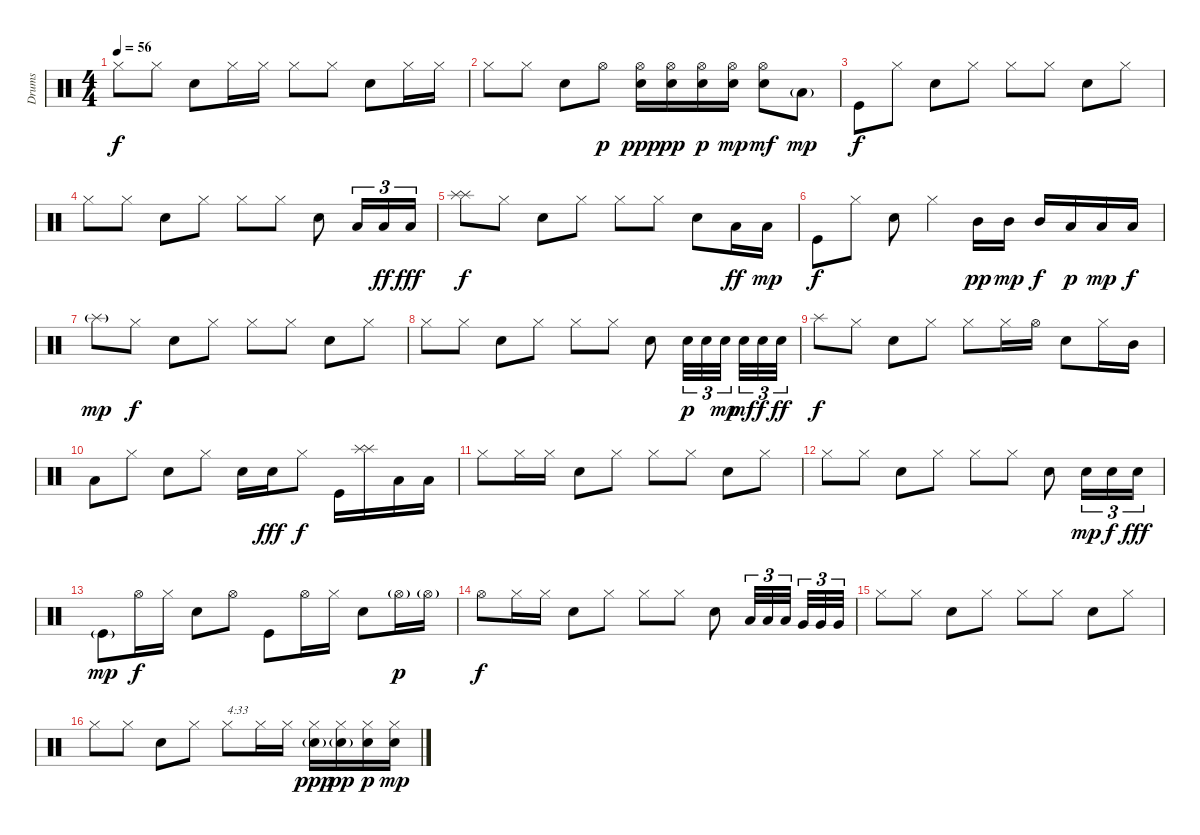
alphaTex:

\track ("Drums" "Drums") {instrument percussion}
\staff {score}
\articulation defaults
\ts (4 4)
\tempo 56
\clef neutral
\ks c "Hi-Hat (closed)".8{dy f} "Hi-Hat (closed)".8 "Electric Snare (hit)".8 "Hi-Hat (closed)".16 "Hi-Hat (closed)".16 "Hi-Hat (closed)".8 "Hi-Hat (closed)".8 "Electric Snare (hit)".8 "Hi-Hat (closed)".16 "Hi-Hat (closed)".16
|
"Hi-Hat (closed)".8 "Hi-Hat (closed)".8 "Electric Snare (hit)".8 "Hi-Hat (open)".8{dy p} ("Hi-Hat (open)" "Electric Snare (hit)").16{dy ppp} ("Hi-Hat (open)" "Electric Snare (hit)").16{dy pp} ("Hi-Hat (open)" "Electric Snare (hit)").16{dy p} ("Hi-Hat (open)" "Electric Snare (hit)").16{dy mp} ("Hi-Hat (open)" "Electric Snare (hit)").8{dy mf} "Low Tom (hit)"{g}.8{dy mp} |
"Kick (hit)".8{dy f} "Hi-Hat (closed)".8 "Electric Snare (hit)".8 "Hi-Hat (closed)".8 "Hi-Hat (closed)".8 "Hi-Hat (closed)".8 "Electric Snare (hit)".8 "Hi-Hat (closed)".8 |
"Hi-Hat (closed)".8 "Hi-Hat (closed)".8 "Electric Snare (hit)".8 "Hi-Hat (closed)".8 "Hi-Hat (closed)".8 "Hi-Hat (closed)".8 "Electric Snare (hit)".8 "Low Tom (hit)".16{tu (3 2)} "Low Tom (hit)".16{tu (3 2) dy ff} "Low Tom (hit)".16{tu (3 2) dy fff} |
("Splash (hit)" "Splash (hit)").8{dy f} "Hi-Hat (closed)".8 "Electric Snare (hit)".8 "Hi-Hat (closed)".8 "Hi-Hat (closed)".8 "Hi-Hat (closed)".8 "Electric Snare (hit)".8 "Low Tom (hit)".16{dy ff} "Low Tom (hit)".16{dy mp} |
"Kick (hit)".8{dy f} "Hi-Hat (closed)".8 "Electric Snare (hit)".8 "Hi-Hat (closed)".4 "Mid Tom (hit)".16{dy pp} "Mid Tom (hit)".16{dy mp} "Mid Tom (hit)".16{dy f} "Low Tom (hit)".16{dy p} "Low Tom (hit)".16{dy mp} "Low Tom (hit)".16{dy f} |
"Splash (hit)"{g}.8{dy mp} "Hi-Hat (closed)".8{dy f} "Electric Snare (hit)".8 "Hi-Hat (closed)".8 "Hi-Hat (closed)".8 "Hi-Hat (closed)".8 "Electric Snare (hit)".8 "Hi-Hat (closed)".8 |
"Hi-Hat (closed)".8 "Hi-Hat (closed)".8 "Electric Snare (hit)".8 "Hi-Hat (closed)".8 "Hi-Hat (closed)".8 "Hi-Hat (closed)".8 "Electric Snare (hit)".8 "Electric Snare (hit)".32{tu (3 2) dy p} "Electric Snare (hit)".32{tu (3 2)} "Electric Snare (hit)".32{tu (3 2) dy mp} "Electric Snare (hit)".32{tu (3 2) dy mf} "Electric Snare (hit)".32{tu (3 2) dy f} "Electric Snare (hit)".32{tu (3 2) dy ff} |
"Splash (hit)".8{dy f} "Hi-Hat (closed)".8 "Electric Snare (hit)".8 "Hi-Hat (closed)".8 "Hi-Hat (closed)".8 "Hi-Hat (closed)".16 "Hi-Hat (open)".16 "Electric Snare (hit)".8 "Hi-Hat (closed)".16 "Mid Tom (hit)".16 |
"Low Tom (hit)".8 "Hi-Hat (closed)".8 "Electric Snare (hit)".8 "Hi-Hat (closed)".8 "Electric Snare (hit)".16 "Electric Snare (hit)".16{dy fff} "Hi-Hat (closed)".8{dy f} "Kick (hit)".16 ("Splash (hit)" "Splash (hit)").16 "Low Tom (hit)".16 "Low Tom (hit)".16 |
"Hi-Hat (closed)".8 "Hi-Hat (closed)".16 "Hi-Hat (closed)".16 "Electric Snare (hit)".8 "Hi-Hat (closed)".8 "Hi-Hat (closed)".8 "Hi-Hat (closed)".8 "Electric Snare (hit)".8 "Hi-Hat (closed)".8 |
"Hi-Hat (closed)".8 "Hi-Hat (closed)".8 "Electric Snare (hit)".8 "Hi-Hat (closed)".8 "Hi-Hat (closed)".8 "Hi-Hat (closed)".8 "Electric Snare (hit)".8 "Electric Snare (hit)".16{tu (3 2) dy mp} "Electric Snare (hit)".16{tu (3 2) dy f} "Electric Snare (hit)".16{tu (3 2) dy fff} |
"Kick (hit)"{g}.8{dy mp} "Hi-Hat (open)".16{dy f} "Hi-Hat (closed)".16 "Electric Snare (hit)".8 "Hi-Hat (open)".8 "Kick (hit)".8 "Hi-Hat (open)".16 "Hi-Hat (closed)".16 "Electric Snare (hit)".8 "Hi-Hat (open)"{g}.16{dy p} "Hi-Hat (open)"{g}.16 |
"Hi-Hat (open)".8{dy f} "Hi-Hat (closed)".16 "Hi-Hat (closed)".16 "Electric Snare (hit)".8 "Hi-Hat (closed)".8 "Hi-Hat (closed)".8 "Hi-Hat (closed)".8 "Electric Snare (hit)".8 "Low Tom (hit)".32{tu (3 2)} "Low Tom (hit)".32{tu (3 2)} "Low Tom (hit)".32{tu (3 2)} "Very Low Tom (hit)".32{tu (3 2)} "Very Low Tom (hit)".32{tu (3 2)} "Very Low Tom (hit)".32{tu (3 2)} |
"Hi-Hat (closed)".8 "Hi-Hat (closed)".8 "Electric Snare (hit)".8 "Hi-Hat (closed)".8 "Hi-Hat (closed)".8 "Hi-Hat (closed)".8 "Electric Snare (hit)".8 "Hi-Hat (closed)".8 |
"Hi-Hat (closed)".8 "Hi-Hat (closed)".8 "Electric Snare (hit)".8 "Hi-Hat (closed)".8 "Hi-Hat (closed)".8{txt "4:33"} "Hi-Hat (closed)".16 "Hi-Hat (closed)".16 ("Hi-Hat (closed)" "Electric Snare (hit)"{g}).16{dy ppp} ("Hi-Hat (closed)" "Electric Snare (hit)"{g}).16{dy pp} ("Hi-Hat (closed)" "Electric Snare (hit)").16{dy p} ("Hi-Hat (closed)" "Electric Snare (hit)").16{dy mp}
